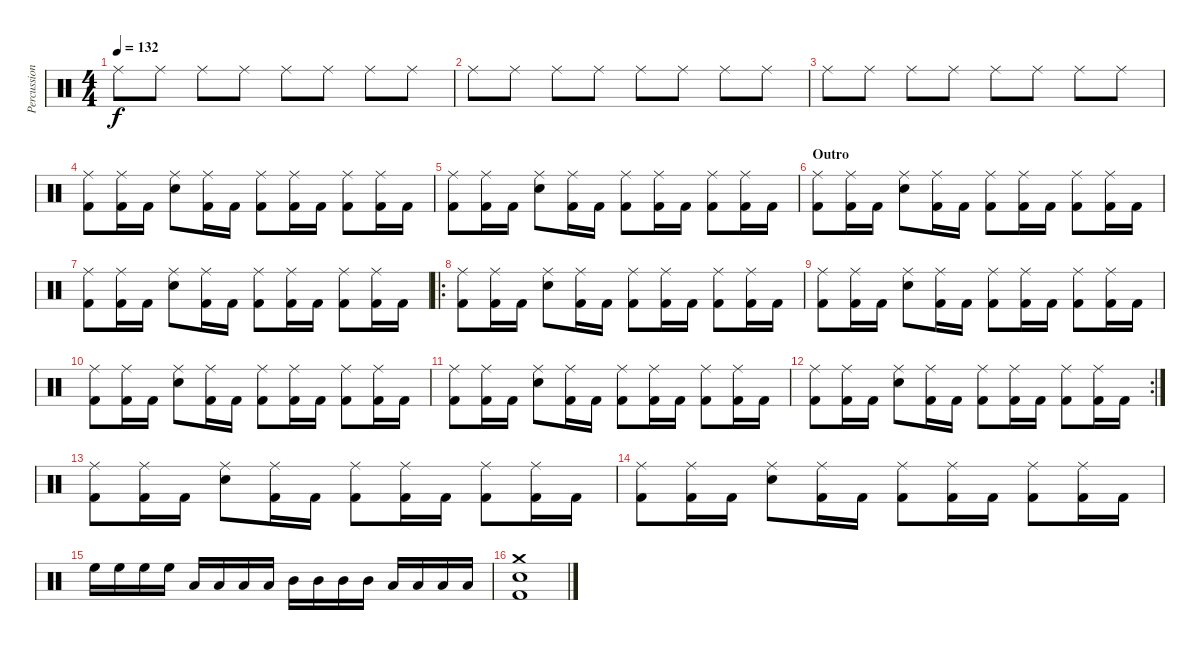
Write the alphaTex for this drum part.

\track ("Percussion" "Percussion") {instrument percussion}
\staff {score}
\articulation defaults
\ts (4 4)
\tempo 132
\clef neutral
\ks c "Ride (middle)".8{dy f} "Ride (middle)".8 "Ride (middle)".8 "Ride (middle)".8 "Ride (middle)".8 "Ride (middle)".8 "Ride (middle)".8 "Ride (middle)".8
|
"Ride (middle)".8 "Ride (middle)".8 "Ride (middle)".8 "Ride (middle)".8 "Ride (middle)".8 "Ride (middle)".8 "Ride (middle)".8 "Ride (middle)".8 |
"Ride (middle)".8 "Ride (middle)".8 "Ride (middle)".8 "Ride (middle)".8 "Ride (middle)".8 "Ride (middle)".8 "Ride (middle)".8 "Ride (middle)".8 |
("Ride (middle)" "Kick (hit) 2").8 ("Ride (middle)" "Kick (hit) 2").16 "Kick (hit) 2".16 ("Ride (middle)" "Snare (hit) 2").8 ("Ride (middle)" "Kick (hit) 2").16 "Kick (hit) 2".16 ("Ride (middle)" "Kick (hit) 2").8 ("Ride (middle)" "Kick (hit) 2").16 "Kick (hit) 2".16 ("Ride (middle)" "Kick (hit) 2").8 ("Ride (middle)" "Kick (hit) 2").16 "Kick (hit) 2".16 |
("Ride (middle)" "Kick (hit) 2").8 ("Ride (middle)" "Kick (hit) 2").16 "Kick (hit) 2".16 ("Ride (middle)" "Snare (hit) 2").8 ("Ride (middle)" "Kick (hit) 2").16 "Kick (hit) 2".16 ("Ride (middle)" "Kick (hit) 2").8 ("Ride (middle)" "Kick (hit) 2").16 "Kick (hit) 2".16 ("Ride (middle)" "Kick (hit) 2").8 ("Ride (middle)" "Kick (hit) 2").16 "Kick (hit) 2".16 |
\section ("" "Outro")
("Ride (middle)" "Kick (hit) 2").8 ("Ride (middle)" "Kick (hit) 2").16 "Kick (hit) 2".16 ("Ride (middle)" "Snare (hit) 2").8 ("Ride (middle)" "Kick (hit) 2").16 "Kick (hit) 2".16 ("Ride (middle)" "Kick (hit) 2").8 ("Ride (middle)" "Kick (hit) 2").16 "Kick (hit) 2".16 ("Ride (middle)" "Kick (hit) 2").8 ("Ride (middle)" "Kick (hit) 2").16 "Kick (hit) 2".16 |
("Ride (middle)" "Kick (hit) 2").8 ("Ride (middle)" "Kick (hit) 2").16 "Kick (hit) 2".16 ("Ride (middle)" "Snare (hit) 2").8 ("Ride (middle)" "Kick (hit) 2").16 "Kick (hit) 2".16 ("Ride (middle)" "Kick (hit) 2").8 ("Ride (middle)" "Kick (hit) 2").16 "Kick (hit) 2".16 ("Ride (middle)" "Kick (hit) 2").8 ("Ride (middle)" "Kick (hit) 2").16 "Kick (hit) 2".16 |
\ro
("Ride (middle)" "Kick (hit) 2").8 ("Ride (middle)" "Kick (hit) 2").16 "Kick (hit) 2".16 ("Ride (middle)" "Snare (hit) 2").8 ("Ride (middle)" "Kick (hit) 2").16 "Kick (hit) 2".16 ("Ride (middle)" "Kick (hit) 2").8 ("Ride (middle)" "Kick (hit) 2").16 "Kick (hit) 2".16 ("Ride (middle)" "Kick (hit) 2").8 ("Ride (middle)" "Kick (hit) 2").16 "Kick (hit) 2".16 |
("Ride (middle)" "Kick (hit) 2").8 ("Ride (middle)" "Kick (hit) 2").16 "Kick (hit) 2".16 ("Ride (middle)" "Snare (hit) 2").8 ("Ride (middle)" "Kick (hit) 2").16 "Kick (hit) 2".16 ("Ride (middle)" "Kick (hit) 2").8 ("Ride (middle)" "Kick (hit) 2").16 "Kick (hit) 2".16 ("Ride (middle)" "Kick (hit) 2").8 ("Ride (middle)" "Kick (hit) 2").16 "Kick (hit) 2".16 |
("Ride (middle)" "Kick (hit) 2").8 ("Ride (middle)" "Kick (hit) 2").16 "Kick (hit) 2".16 ("Ride (middle)" "Snare (hit) 2").8 ("Ride (middle)" "Kick (hit) 2").16 "Kick (hit) 2".16 ("Ride (middle)" "Kick (hit) 2").8 ("Ride (middle)" "Kick (hit) 2").16 "Kick (hit) 2".16 ("Ride (middle)" "Kick (hit) 2").8 ("Ride (middle)" "Kick (hit) 2").16 "Kick (hit) 2".16 |
("Ride (middle)" "Kick (hit) 2").8 ("Ride (middle)" "Kick (hit) 2").16 "Kick (hit) 2".16 ("Ride (middle)" "Snare (hit) 2").8 ("Ride (middle)" "Kick (hit) 2").16 "Kick (hit) 2".16 ("Ride (middle)" "Kick (hit) 2").8 ("Ride (middle)" "Kick (hit) 2").16 "Kick (hit) 2".16 ("Ride (middle)" "Kick (hit) 2").8 ("Ride (middle)" "Kick (hit) 2").16 "Kick (hit) 2".16 |
\rc 2
("Ride (middle)" "Kick (hit) 2").8 ("Ride (middle)" "Kick (hit) 2").16 "Kick (hit) 2".16 ("Ride (middle)" "Snare (hit) 2").8 ("Ride (middle)" "Kick (hit) 2").16 "Kick (hit) 2".16 ("Ride (middle)" "Kick (hit) 2").8 ("Ride (middle)" "Kick (hit) 2").16 "Kick (hit) 2".16 ("Ride (middle)" "Kick (hit) 2").8 ("Ride (middle)" "Kick (hit) 2").16 "Kick (hit) 2".16 |
("Ride (middle)" "Kick (hit) 2").8 ("Ride (middle)" "Kick (hit) 2").16 "Kick (hit) 2".16 ("Ride (middle)" "Snare (hit) 2").8 ("Ride (middle)" "Kick (hit) 2").16 "Kick (hit) 2".16 ("Ride (middle)" "Kick (hit) 2").8 ("Ride (middle)" "Kick (hit) 2").16 "Kick (hit) 2".16 ("Ride (middle)" "Kick (hit) 2").8 ("Ride (middle)" "Kick (hit) 2").16 "Kick (hit) 2".16 |
("Ride (middle)" "Kick (hit) 2").8 ("Ride (middle)" "Kick (hit) 2").16 "Kick (hit) 2".16 ("Ride (middle)" "Snare (hit) 2").8 ("Ride (middle)" "Kick (hit) 2").16 "Kick (hit) 2".16 ("Ride (middle)" "Kick (hit) 2").8 ("Ride (middle)" "Kick (hit) 2").16 "Kick (hit) 2".16 ("Ride (middle)" "Kick (hit) 2").8 ("Ride (middle)" "Kick (hit) 2").16 "Kick (hit) 2".16 |
"High Floor Tom (hit)".16 "High Floor Tom (hit)".16 "High Floor Tom (hit)".16 "High Floor Tom (hit)".16 "Low Tom (hit)".16 "Low Tom (hit)".16 "Low Tom (hit)".16 "Low Tom (hit)".16 "Mid Tom (hit)".16 "Mid Tom (hit)".16 "Mid Tom (hit)".16 "Mid Tom (hit)".16 "Low Tom (hit)".16 "Low Tom (hit)".16 "Low Tom (hit)".16 "Low Tom (hit)".16 |
("Crash medium (hit)" "Snare (hit) 2" "Kick (hit) 2").1
